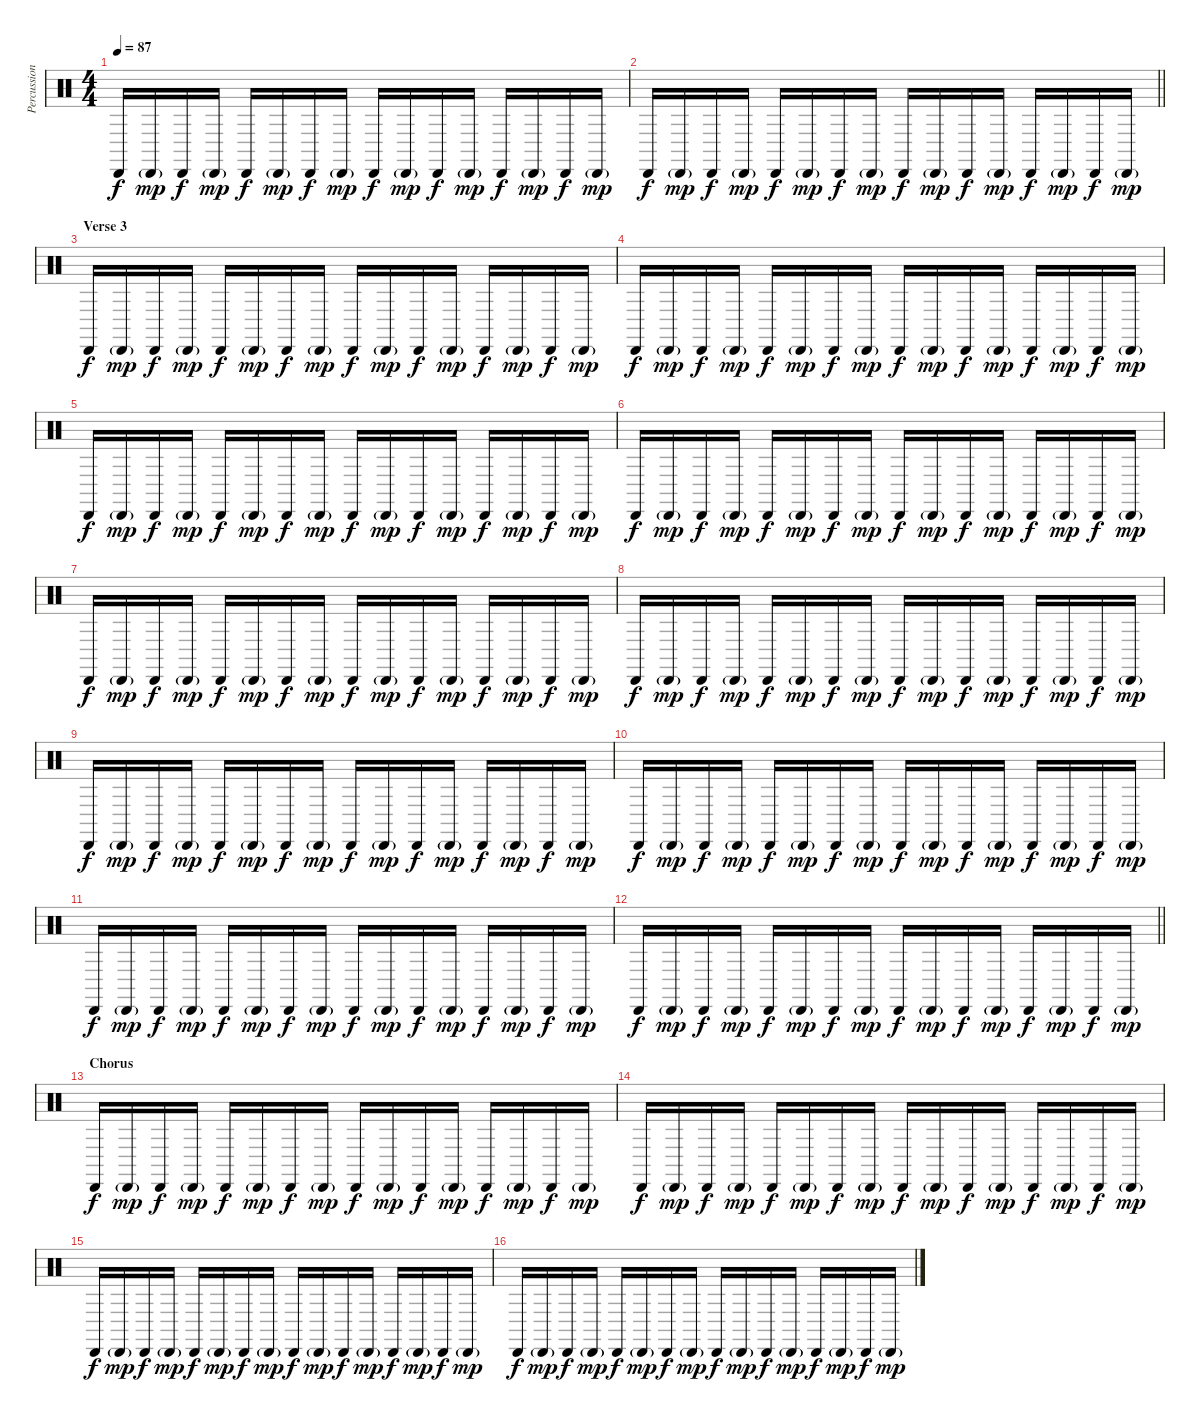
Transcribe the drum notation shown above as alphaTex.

\track ("Percussion" "Percussion") {instrument percussion}
\staff {score}
\articulation defaults
\ts (4 4)
\tempo 87
\clef neutral
\ks c "Cabasa (hit)".16{dy f} "Cabasa (hit)"{g}.16{dy mp} "Cabasa (hit)".16{dy f} "Cabasa (hit)"{g}.16{dy mp} "Cabasa (hit)".16{dy f} "Cabasa (hit)"{g}.16{dy mp} "Cabasa (hit)".16{dy f} "Cabasa (hit)"{g}.16{dy mp} "Cabasa (hit)".16{dy f} "Cabasa (hit)"{g}.16{dy mp} "Cabasa (hit)".16{dy f} "Cabasa (hit)"{g}.16{dy mp} "Cabasa (hit)".16{dy f} "Cabasa (hit)"{g}.16{dy mp} "Cabasa (hit)".16{dy f} "Cabasa (hit)"{g}.16{dy mp}
|
\barLineRight lightlight "Cabasa (hit)".16{dy f} "Cabasa (hit)"{g}.16{dy mp} "Cabasa (hit)".16{dy f} "Cabasa (hit)"{g}.16{dy mp} "Cabasa (hit)".16{dy f} "Cabasa (hit)"{g}.16{dy mp} "Cabasa (hit)".16{dy f} "Cabasa (hit)"{g}.16{dy mp} "Cabasa (hit)".16{dy f} "Cabasa (hit)"{g}.16{dy mp} "Cabasa (hit)".16{dy f} "Cabasa (hit)"{g}.16{dy mp} "Cabasa (hit)".16{dy f} "Cabasa (hit)"{g}.16{dy mp} "Cabasa (hit)".16{dy f} "Cabasa (hit)"{g}.16{dy mp}
|
\section ("" "Verse 3")
"Cabasa (hit)".16{dy f} "Cabasa (hit)"{g}.16{dy mp} "Cabasa (hit)".16{dy f} "Cabasa (hit)"{g}.16{dy mp} "Cabasa (hit)".16{dy f} "Cabasa (hit)"{g}.16{dy mp} "Cabasa (hit)".16{dy f} "Cabasa (hit)"{g}.16{dy mp} "Cabasa (hit)".16{dy f} "Cabasa (hit)"{g}.16{dy mp} "Cabasa (hit)".16{dy f} "Cabasa (hit)"{g}.16{dy mp} "Cabasa (hit)".16{dy f} "Cabasa (hit)"{g}.16{dy mp} "Cabasa (hit)".16{dy f} "Cabasa (hit)"{g}.16{dy mp} |
"Cabasa (hit)".16{dy f} "Cabasa (hit)"{g}.16{dy mp} "Cabasa (hit)".16{dy f} "Cabasa (hit)"{g}.16{dy mp} "Cabasa (hit)".16{dy f} "Cabasa (hit)"{g}.16{dy mp} "Cabasa (hit)".16{dy f} "Cabasa (hit)"{g}.16{dy mp} "Cabasa (hit)".16{dy f} "Cabasa (hit)"{g}.16{dy mp} "Cabasa (hit)".16{dy f} "Cabasa (hit)"{g}.16{dy mp} "Cabasa (hit)".16{dy f} "Cabasa (hit)"{g}.16{dy mp} "Cabasa (hit)".16{dy f} "Cabasa (hit)"{g}.16{dy mp} |
"Cabasa (hit)".16{dy f} "Cabasa (hit)"{g}.16{dy mp} "Cabasa (hit)".16{dy f} "Cabasa (hit)"{g}.16{dy mp} "Cabasa (hit)".16{dy f} "Cabasa (hit)"{g}.16{dy mp} "Cabasa (hit)".16{dy f} "Cabasa (hit)"{g}.16{dy mp} "Cabasa (hit)".16{dy f} "Cabasa (hit)"{g}.16{dy mp} "Cabasa (hit)".16{dy f} "Cabasa (hit)"{g}.16{dy mp} "Cabasa (hit)".16{dy f} "Cabasa (hit)"{g}.16{dy mp} "Cabasa (hit)".16{dy f} "Cabasa (hit)"{g}.16{dy mp} |
"Cabasa (hit)".16{dy f} "Cabasa (hit)"{g}.16{dy mp} "Cabasa (hit)".16{dy f} "Cabasa (hit)"{g}.16{dy mp} "Cabasa (hit)".16{dy f} "Cabasa (hit)"{g}.16{dy mp} "Cabasa (hit)".16{dy f} "Cabasa (hit)"{g}.16{dy mp} "Cabasa (hit)".16{dy f} "Cabasa (hit)"{g}.16{dy mp} "Cabasa (hit)".16{dy f} "Cabasa (hit)"{g}.16{dy mp} "Cabasa (hit)".16{dy f} "Cabasa (hit)"{g}.16{dy mp} "Cabasa (hit)".16{dy f} "Cabasa (hit)"{g}.16{dy mp} |
"Cabasa (hit)".16{dy f} "Cabasa (hit)"{g}.16{dy mp} "Cabasa (hit)".16{dy f} "Cabasa (hit)"{g}.16{dy mp} "Cabasa (hit)".16{dy f} "Cabasa (hit)"{g}.16{dy mp} "Cabasa (hit)".16{dy f} "Cabasa (hit)"{g}.16{dy mp} "Cabasa (hit)".16{dy f} "Cabasa (hit)"{g}.16{dy mp} "Cabasa (hit)".16{dy f} "Cabasa (hit)"{g}.16{dy mp} "Cabasa (hit)".16{dy f} "Cabasa (hit)"{g}.16{dy mp} "Cabasa (hit)".16{dy f} "Cabasa (hit)"{g}.16{dy mp} |
"Cabasa (hit)".16{dy f} "Cabasa (hit)"{g}.16{dy mp} "Cabasa (hit)".16{dy f} "Cabasa (hit)"{g}.16{dy mp} "Cabasa (hit)".16{dy f} "Cabasa (hit)"{g}.16{dy mp} "Cabasa (hit)".16{dy f} "Cabasa (hit)"{g}.16{dy mp} "Cabasa (hit)".16{dy f} "Cabasa (hit)"{g}.16{dy mp} "Cabasa (hit)".16{dy f} "Cabasa (hit)"{g}.16{dy mp} "Cabasa (hit)".16{dy f} "Cabasa (hit)"{g}.16{dy mp} "Cabasa (hit)".16{dy f} "Cabasa (hit)"{g}.16{dy mp} |
"Cabasa (hit)".16{dy f} "Cabasa (hit)"{g}.16{dy mp} "Cabasa (hit)".16{dy f} "Cabasa (hit)"{g}.16{dy mp} "Cabasa (hit)".16{dy f} "Cabasa (hit)"{g}.16{dy mp} "Cabasa (hit)".16{dy f} "Cabasa (hit)"{g}.16{dy mp} "Cabasa (hit)".16{dy f} "Cabasa (hit)"{g}.16{dy mp} "Cabasa (hit)".16{dy f} "Cabasa (hit)"{g}.16{dy mp} "Cabasa (hit)".16{dy f} "Cabasa (hit)"{g}.16{dy mp} "Cabasa (hit)".16{dy f} "Cabasa (hit)"{g}.16{dy mp} |
"Cabasa (hit)".16{dy f} "Cabasa (hit)"{g}.16{dy mp} "Cabasa (hit)".16{dy f} "Cabasa (hit)"{g}.16{dy mp} "Cabasa (hit)".16{dy f} "Cabasa (hit)"{g}.16{dy mp} "Cabasa (hit)".16{dy f} "Cabasa (hit)"{g}.16{dy mp} "Cabasa (hit)".16{dy f} "Cabasa (hit)"{g}.16{dy mp} "Cabasa (hit)".16{dy f} "Cabasa (hit)"{g}.16{dy mp} "Cabasa (hit)".16{dy f} "Cabasa (hit)"{g}.16{dy mp} "Cabasa (hit)".16{dy f} "Cabasa (hit)"{g}.16{dy mp} |
"Cabasa (hit)".16{dy f} "Cabasa (hit)"{g}.16{dy mp} "Cabasa (hit)".16{dy f} "Cabasa (hit)"{g}.16{dy mp} "Cabasa (hit)".16{dy f} "Cabasa (hit)"{g}.16{dy mp} "Cabasa (hit)".16{dy f} "Cabasa (hit)"{g}.16{dy mp} "Cabasa (hit)".16{dy f} "Cabasa (hit)"{g}.16{dy mp} "Cabasa (hit)".16{dy f} "Cabasa (hit)"{g}.16{dy mp} "Cabasa (hit)".16{dy f} "Cabasa (hit)"{g}.16{dy mp} "Cabasa (hit)".16{dy f} "Cabasa (hit)"{g}.16{dy mp} |
\barLineRight lightlight "Cabasa (hit)".16{dy f} "Cabasa (hit)"{g}.16{dy mp} "Cabasa (hit)".16{dy f} "Cabasa (hit)"{g}.16{dy mp} "Cabasa (hit)".16{dy f} "Cabasa (hit)"{g}.16{dy mp} "Cabasa (hit)".16{dy f} "Cabasa (hit)"{g}.16{dy mp} "Cabasa (hit)".16{dy f} "Cabasa (hit)"{g}.16{dy mp} "Cabasa (hit)".16{dy f} "Cabasa (hit)"{g}.16{dy mp} "Cabasa (hit)".16{dy f} "Cabasa (hit)"{g}.16{dy mp} "Cabasa (hit)".16{dy f} "Cabasa (hit)"{g}.16{dy mp}
|
\section ("" "Chorus")
"Cabasa (hit)".16{dy f} "Cabasa (hit)"{g}.16{dy mp} "Cabasa (hit)".16{dy f} "Cabasa (hit)"{g}.16{dy mp} "Cabasa (hit)".16{dy f} "Cabasa (hit)"{g}.16{dy mp} "Cabasa (hit)".16{dy f} "Cabasa (hit)"{g}.16{dy mp} "Cabasa (hit)".16{dy f} "Cabasa (hit)"{g}.16{dy mp} "Cabasa (hit)".16{dy f} "Cabasa (hit)"{g}.16{dy mp} "Cabasa (hit)".16{dy f} "Cabasa (hit)"{g}.16{dy mp} "Cabasa (hit)".16{dy f} "Cabasa (hit)"{g}.16{dy mp} |
"Cabasa (hit)".16{dy f} "Cabasa (hit)"{g}.16{dy mp} "Cabasa (hit)".16{dy f} "Cabasa (hit)"{g}.16{dy mp} "Cabasa (hit)".16{dy f} "Cabasa (hit)"{g}.16{dy mp} "Cabasa (hit)".16{dy f} "Cabasa (hit)"{g}.16{dy mp} "Cabasa (hit)".16{dy f} "Cabasa (hit)"{g}.16{dy mp} "Cabasa (hit)".16{dy f} "Cabasa (hit)"{g}.16{dy mp} "Cabasa (hit)".16{dy f} "Cabasa (hit)"{g}.16{dy mp} "Cabasa (hit)".16{dy f} "Cabasa (hit)"{g}.16{dy mp} |
"Cabasa (hit)".16{dy f} "Cabasa (hit)"{g}.16{dy mp} "Cabasa (hit)".16{dy f} "Cabasa (hit)"{g}.16{dy mp} "Cabasa (hit)".16{dy f} "Cabasa (hit)"{g}.16{dy mp} "Cabasa (hit)".16{dy f} "Cabasa (hit)"{g}.16{dy mp} "Cabasa (hit)".16{dy f} "Cabasa (hit)"{g}.16{dy mp} "Cabasa (hit)".16{dy f} "Cabasa (hit)"{g}.16{dy mp} "Cabasa (hit)".16{dy f} "Cabasa (hit)"{g}.16{dy mp} "Cabasa (hit)".16{dy f} "Cabasa (hit)"{g}.16{dy mp} |
"Cabasa (hit)".16{dy f} "Cabasa (hit)"{g}.16{dy mp} "Cabasa (hit)".16{dy f} "Cabasa (hit)"{g}.16{dy mp} "Cabasa (hit)".16{dy f} "Cabasa (hit)"{g}.16{dy mp} "Cabasa (hit)".16{dy f} "Cabasa (hit)"{g}.16{dy mp} "Cabasa (hit)".16{dy f} "Cabasa (hit)"{g}.16{dy mp} "Cabasa (hit)".16{dy f} "Cabasa (hit)"{g}.16{dy mp} "Cabasa (hit)".16{dy f} "Cabasa (hit)"{g}.16{dy mp} "Cabasa (hit)".16{dy f} "Cabasa (hit)"{g}.16{dy mp}
